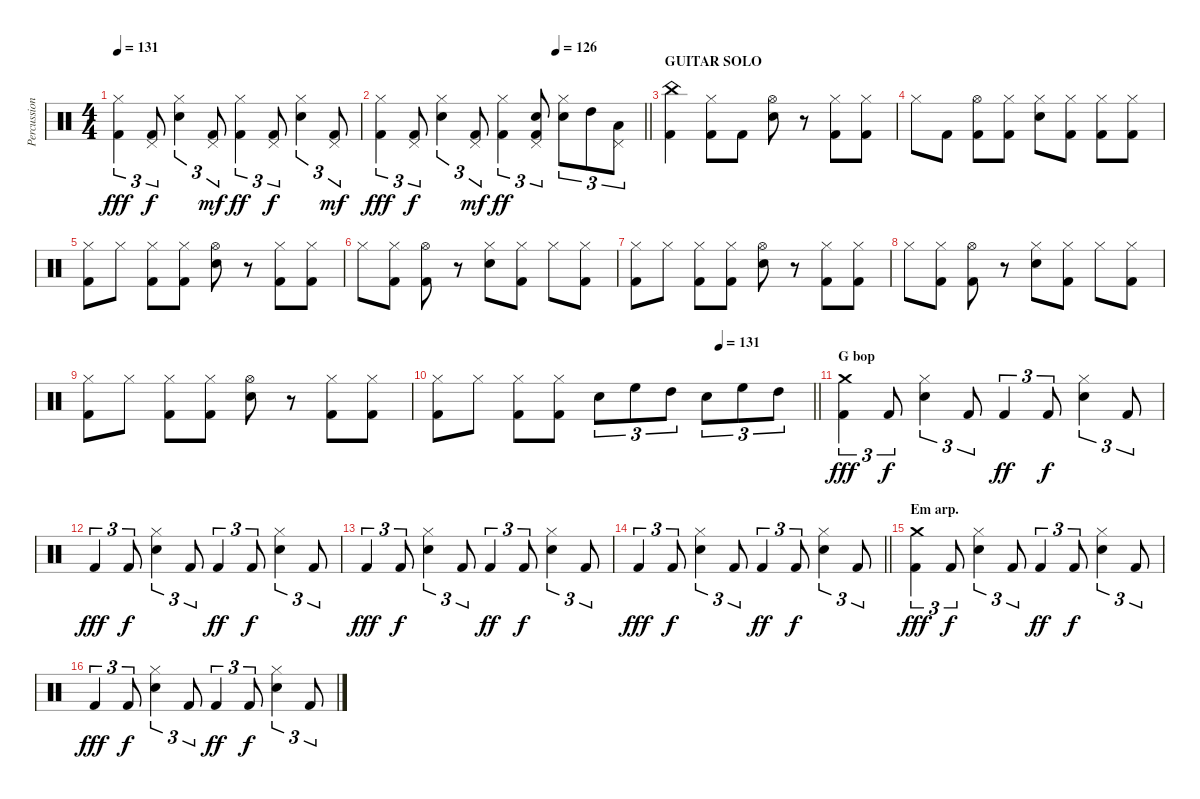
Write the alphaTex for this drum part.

\track ("Percussion" "Percussion") {instrument percussion}
\staff {score}
\articulation defaults
\ts (4 4)
\tempo 131
\clef neutral
\ks c
("Hi-Hat (closed)" "Kick (hit) 2").4{tu (3 2) dy fff} ("Pedal Hi-Hat (hit)" "Kick (hit) 2").8{tu (3 2) dy f} ("Hi-Hat (closed)" "Electric Snare (hit)").4{tu (3 2)} ("Pedal Hi-Hat (hit)" "Kick (hit) 2").8{tu (3 2) dy mf} ("Hi-Hat (closed)" "Kick (hit) 2").4{tu (3 2) dy ff} ("Pedal Hi-Hat (hit)" "Kick (hit) 2").8{tu (3 2) dy f} ("Hi-Hat (closed)" "Electric Snare (hit)").4{tu (3 2)} ("Pedal Hi-Hat (hit)" "Kick (hit) 2").8{tu (3 2) dy mf} |
\tempo (126 0.6666666666666666)
\barLineRight lightlight
("Hi-Hat (closed)" "Kick (hit) 2").4{tu (3 2) dy fff} ("Pedal Hi-Hat (hit)" "Kick (hit) 2").8{tu (3 2) dy f} ("Hi-Hat (closed)" "Electric Snare (hit)").4{tu (3 2)} ("Pedal Hi-Hat (hit)" "Kick (hit) 2").8{tu (3 2) dy mf} ("Hi-Hat (closed)" "Kick (hit) 2").4{tu (3 2) dy ff} ("Pedal Hi-Hat (hit)" "Electric Snare (hit)" "Kick (hit) 2").8{tu (3 2)} ("Hi-Hat (closed)" "Electric Snare (hit)").8{tu (3 2)} "High Tom (hit)".8{tu (3 2)} ("Pedal Hi-Hat (hit)" "Low Floor Tom (hit)").8{tu (3 2)} |
\section ("" "GUITAR SOLO")
("China (hit)" "Kick (hit) 2").4 ("Hi-Hat (closed)" "Kick (hit) 2").8 "Kick (hit) 2".8 ("Hi-Hat (open)" "Snare (hit) 2").8 r.8 ("Hi-Hat (closed)" "Kick (hit) 2").8 ("Hi-Hat (closed)" "Kick (hit) 2").8 |
"Hi-Hat (closed)".8 "Kick (hit) 2".8 ("Hi-Hat (open)" "Kick (hit) 2").8 ("Hi-Hat (closed)" "Kick (hit) 2").8 ("Hi-Hat (closed)" "Snare (hit) 2").8 ("Hi-Hat (closed)" "Kick (hit) 2").8 ("Hi-Hat (closed)" "Kick (hit) 2").8 ("Hi-Hat (closed)" "Kick (hit) 2").8 |
("Hi-Hat (closed)" "Kick (hit) 2").8 "Hi-Hat (closed)".8 ("Hi-Hat (closed)" "Kick (hit) 2").8 ("Hi-Hat (closed)" "Kick (hit) 2").8 ("Hi-Hat (open)" "Snare (hit) 2").8 r.8 ("Hi-Hat (closed)" "Kick (hit) 2").8 ("Hi-Hat (closed)" "Kick (hit) 2").8 |
"Hi-Hat (closed)".8 ("Hi-Hat (closed)" "Kick (hit) 2").8 ("Hi-Hat (open)" "Kick (hit) 2").8 r.8 ("Hi-Hat (closed)" "Snare (hit) 2").8 ("Hi-Hat (closed)" "Kick (hit) 2").8 "Hi-Hat (closed)".8 ("Hi-Hat (closed)" "Kick (hit) 2").8 |
("Hi-Hat (closed)" "Kick (hit) 2").8 "Hi-Hat (closed)".8 ("Hi-Hat (closed)" "Kick (hit) 2").8 ("Hi-Hat (closed)" "Kick (hit) 2").8 ("Hi-Hat (open)" "Snare (hit) 2").8 r.8 ("Hi-Hat (closed)" "Kick (hit) 2").8 ("Hi-Hat (closed)" "Kick (hit) 2").8 |
"Hi-Hat (closed)".8 ("Hi-Hat (closed)" "Kick (hit) 2").8 ("Hi-Hat (open)" "Kick (hit) 2").8 r.8 ("Hi-Hat (closed)" "Snare (hit) 2").8 ("Hi-Hat (closed)" "Kick (hit) 2").8 "Hi-Hat (closed)".8 ("Hi-Hat (closed)" "Kick (hit) 2").8 |
("Hi-Hat (closed)" "Kick (hit) 2").8 "Hi-Hat (closed)".8 ("Hi-Hat (closed)" "Kick (hit) 2").8 ("Hi-Hat (closed)" "Kick (hit) 2").8 ("Hi-Hat (open)" "Snare (hit) 2").8 r.8 ("Hi-Hat (closed)" "Kick (hit) 2").8 ("Hi-Hat (closed)" "Kick (hit) 2").8 |
\tempo (131 0.75)
\barLineRight lightlight
("Hi-Hat (closed)" "Kick (hit) 2").8 "Hi-Hat (closed)".8 ("Hi-Hat (closed)" "Kick (hit) 2").8 ("Hi-Hat (closed)" "Kick (hit) 2").8 "Snare (hit) 2".8{tu (3 2)} "High Floor Tom (hit)".8{tu (3 2)} "High Tom (hit)".8{tu (3 2)} "Snare (hit) 2".8{tu (3 2)} "High Floor Tom (hit)".8{tu (3 2)} "High Tom (hit)".8{tu (3 2)} |
\section ("" "G bop")
("Crash medium (hit)" "Kick (hit) 2").4{tu (3 2) dy fff} "Kick (hit) 2".8{tu (3 2) dy f} ("Hi-Hat (closed)" "Electric Snare (hit)").4{tu (3 2)} "Kick (hit) 2".8{tu (3 2)} "Kick (hit) 2".4{tu (3 2) dy ff} "Kick (hit) 2".8{tu (3 2) dy f} ("Hi-Hat (closed)" "Electric Snare (hit)").4{tu (3 2)} "Kick (hit) 2".8{tu (3 2)} |
"Kick (hit) 2".4{tu (3 2) dy fff} "Kick (hit) 2".8{tu (3 2) dy f} ("Hi-Hat (closed)" "Electric Snare (hit)").4{tu (3 2)} "Kick (hit) 2".8{tu (3 2)} "Kick (hit) 2".4{tu (3 2) dy ff} "Kick (hit) 2".8{tu (3 2) dy f} ("Hi-Hat (closed)" "Electric Snare (hit)").4{tu (3 2)} "Kick (hit) 2".8{tu (3 2)} |
"Kick (hit) 2".4{tu (3 2) dy fff} "Kick (hit) 2".8{tu (3 2) dy f} ("Hi-Hat (closed)" "Electric Snare (hit)").4{tu (3 2)} "Kick (hit) 2".8{tu (3 2)} "Kick (hit) 2".4{tu (3 2) dy ff} "Kick (hit) 2".8{tu (3 2) dy f} ("Hi-Hat (closed)" "Electric Snare (hit)").4{tu (3 2)} "Kick (hit) 2".8{tu (3 2)} |
\barLineRight lightlight "Kick (hit) 2".4{tu (3 2) dy fff} "Kick (hit) 2".8{tu (3 2) dy f}
("Hi-Hat (closed)" "Electric Snare (hit)").4{tu (3 2)} "Kick (hit) 2".8{tu (3 2)} "Kick (hit) 2".4{tu (3 2) dy ff} "Kick (hit) 2".8{tu (3 2) dy f} ("Hi-Hat (closed)" "Electric Snare (hit)").4{tu (3 2)} "Kick (hit) 2".8{tu (3 2)} |
\section ("" "Em arp.")
("Crash medium (hit)" "Kick (hit) 2").4{tu (3 2) dy fff} "Kick (hit) 2".8{tu (3 2) dy f} ("Hi-Hat (closed)" "Electric Snare (hit)").4{tu (3 2)} "Kick (hit) 2".8{tu (3 2)} "Kick (hit) 2".4{tu (3 2) dy ff} "Kick (hit) 2".8{tu (3 2) dy f} ("Hi-Hat (closed)" "Electric Snare (hit)").4{tu (3 2)} "Kick (hit) 2".8{tu (3 2)} |
"Kick (hit) 2".4{tu (3 2) dy fff} "Kick (hit) 2".8{tu (3 2) dy f} ("Hi-Hat (closed)" "Electric Snare (hit)").4{tu (3 2)} "Kick (hit) 2".8{tu (3 2)} "Kick (hit) 2".4{tu (3 2) dy ff} "Kick (hit) 2".8{tu (3 2) dy f} ("Hi-Hat (closed)" "Electric Snare (hit)").4{tu (3 2)} "Kick (hit) 2".8{tu (3 2)}
